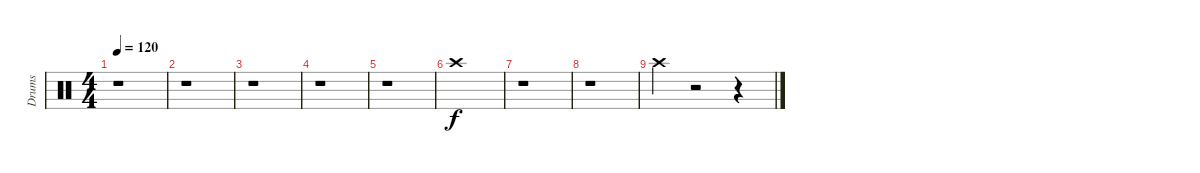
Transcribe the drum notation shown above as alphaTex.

\track ("Drums" "Drums") {instrument percussion}
\staff {score}
\articulation defaults
\ts (4 4)
\tempo 120
\clef neutral
\ks c
r.1{dy f} |
r.1 |
r.1 |
r.1 |
r.1 |
"Crash high (hit)".1 |
r.1 |
r.1 |
"Crash high (hit)".4 r.2 r.4
